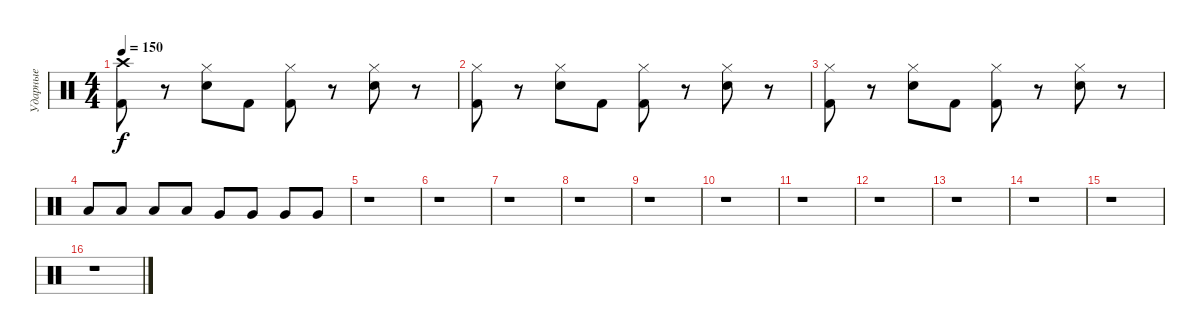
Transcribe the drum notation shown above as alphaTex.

\track ("Ударные" "Ударные") {instrument percussion}
\staff {score}
\articulation defaults
\ts (4 4)
\tempo 150
\clef neutral
\ks c
("Kick (hit) 2" "Crash high (hit)").8{dy f} r.8 ("Hi-Hat (closed)" "Snare (hit) 2").8 "Kick (hit) 2".8 ("Hi-Hat (closed)" "Kick (hit) 2").8 r.8 ("Hi-Hat (closed)" "Snare (hit) 2").8 r.8 |
("Kick (hit) 2" "Hi-Hat (closed)").8 r.8 ("Snare (hit) 2" "Hi-Hat (closed)").8 "Kick (hit) 2".8 ("Kick (hit) 2" "Hi-Hat (closed)").8 r.8 ("Snare (hit) 2" "Hi-Hat (closed)").8 r.8 |
("Kick (hit) 2" "Hi-Hat (closed)").8 r.8 ("Snare (hit) 2" "Hi-Hat (closed)").8 "Kick (hit) 2".8 ("Kick (hit) 2" "Hi-Hat (closed)").8 r.8 ("Snare (hit) 2" "Hi-Hat (closed)").8 r.8 |
"Low Tom (hit)".8 "Low Tom (hit)".8 "Low Tom (hit)".8 "Low Tom (hit)".8 "Very Low Tom (hit)".8 "Very Low Tom (hit)".8 "Very Low Tom (hit)".8 "Very Low Tom (hit)".8 |
r.1 |
r.1 |
r.1 |
r.1 |
r.1 |
r.1 |
r.1 |
r.1 |
r.1 |
r.1 |
r.1 |
r.1
